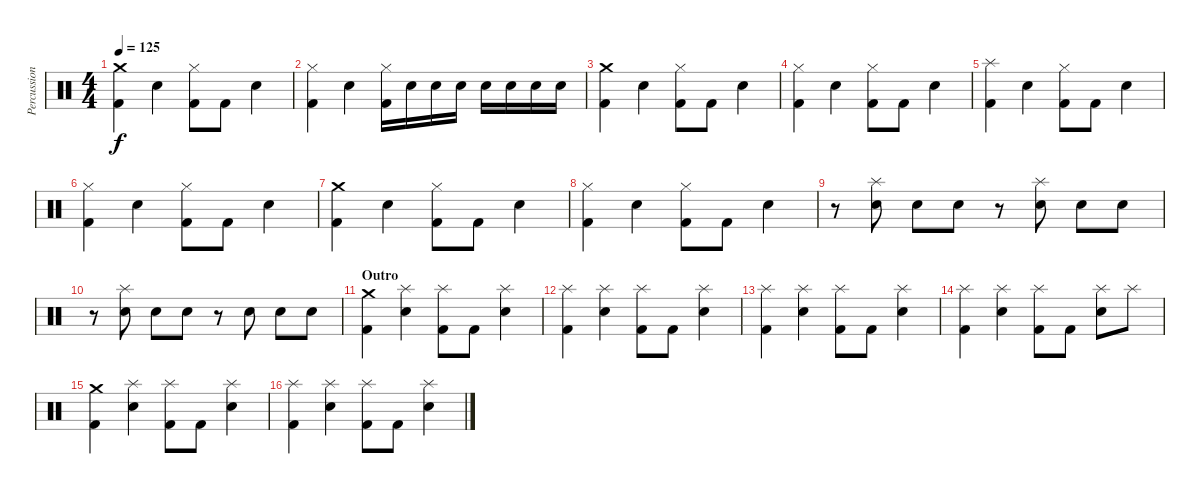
\track ("Percussion" "Percussion") {instrument percussion}
\staff {score}
\articulation defaults
\ts (4 4)
\tempo 125
\clef neutral
\ks c
("Crash medium (hit)" "Kick (hit) 2").4{dy f} "Snare (hit) 2".4 ("Hi-Hat (closed)" "Kick (hit) 2").8 "Kick (hit) 2".8 "Snare (hit) 2".4 |
("Hi-Hat (closed)" "Kick (hit) 2").4 "Snare (hit) 2".4 ("Hi-Hat (closed)" "Kick (hit) 2").16 "Snare (hit) 2".16 "Snare (hit) 2".16 "Snare (hit) 2".16 "Snare (hit) 2".16 "Snare (hit) 2".16 "Snare (hit) 2".16 "Snare (hit) 2".16 |
("Crash medium (hit)" "Kick (hit) 2").4 "Snare (hit) 2".4 ("Hi-Hat (closed)" "Kick (hit) 2").8 "Kick (hit) 2".8 "Snare (hit) 2".4 |
("Hi-Hat (closed)" "Kick (hit) 2").4 "Snare (hit) 2".4 ("Hi-Hat (closed)" "Kick (hit) 2").8 "Kick (hit) 2".8 "Snare (hit) 2".4 |
("Splash (hit)" "Kick (hit) 2").4 "Snare (hit) 2".4 ("Hi-Hat (closed)" "Kick (hit) 2").8 "Kick (hit) 2".8 "Snare (hit) 2".4 |
("Hi-Hat (closed)" "Kick (hit) 2").4 "Snare (hit) 2".4 ("Hi-Hat (closed)" "Kick (hit) 2").8 "Kick (hit) 2".8 "Snare (hit) 2".4 |
("Crash medium (hit)" "Kick (hit) 2").4 "Snare (hit) 2".4 ("Hi-Hat (closed)" "Kick (hit) 2").8 "Kick (hit) 2".8 "Snare (hit) 2".4 |
("Hi-Hat (closed)" "Kick (hit) 2").4 "Snare (hit) 2".4 ("Hi-Hat (closed)" "Kick (hit) 2").8 "Kick (hit) 2".8 "Snare (hit) 2".4 |
r.8 ("Splash (hit)" "Snare (hit) 2").8 "Snare (hit) 2".8 "Snare (hit) 2".8 r.8 ("Splash (hit)" "Snare (hit) 2").8 "Snare (hit) 2".8 "Snare (hit) 2".8 |
r.8 ("Splash (hit)" "Snare (hit) 2").8 "Snare (hit) 2".8 "Snare (hit) 2".8 r.8 "Snare (hit) 2".8 "Snare (hit) 2".8 "Snare (hit) 2".8 |
\section ("" "Outro")
("Crash medium (hit)" "Kick (hit) 2").4 ("Splash (hit)" "Snare (hit) 2").4 ("Splash (hit)" "Kick (hit) 2").8 "Kick (hit) 2".8 ("Splash (hit)" "Snare (hit) 2").4 |
("Splash (hit)" "Kick (hit) 2").4 ("Splash (hit)" "Snare (hit) 2").4 ("Splash (hit)" "Kick (hit) 2").8 "Kick (hit) 2".8 ("Splash (hit)" "Snare (hit) 2").4 |
("Splash (hit)" "Kick (hit) 2").4 ("Splash (hit)" "Snare (hit) 2").4 ("Splash (hit)" "Kick (hit) 2").8 "Kick (hit) 2".8 ("Splash (hit)" "Snare (hit) 2").4 |
("Splash (hit)" "Kick (hit) 2").4 ("Splash (hit)" "Snare (hit) 2").4 ("Splash (hit)" "Kick (hit) 2").8 "Kick (hit) 2".8 ("Splash (hit)" "Snare (hit) 2").8 "Splash (hit)".8 |
("Crash medium (hit)" "Kick (hit) 2").4 ("Splash (hit)" "Snare (hit) 2").4 ("Splash (hit)" "Kick (hit) 2").8 "Kick (hit) 2".8 ("Splash (hit)" "Snare (hit) 2").4 |
("Splash (hit)" "Kick (hit) 2").4 ("Splash (hit)" "Snare (hit) 2").4 ("Splash (hit)" "Kick (hit) 2").8 "Kick (hit) 2".8 ("Splash (hit)" "Snare (hit) 2").4
